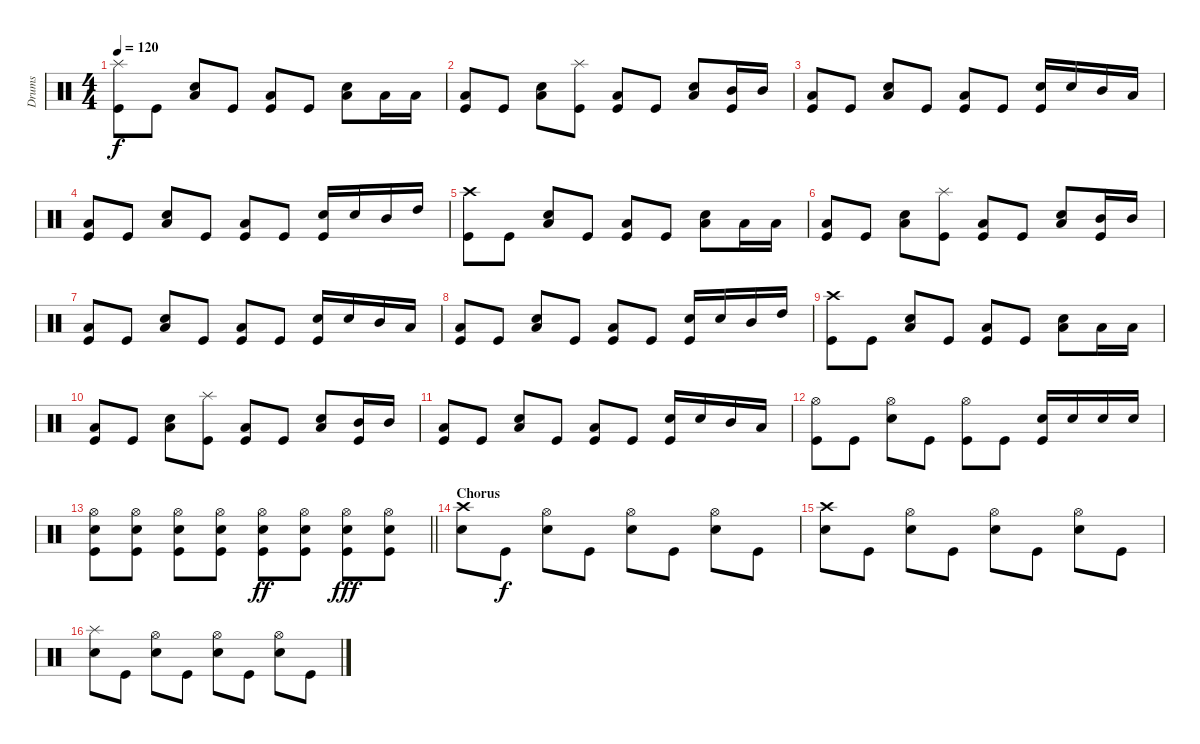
\track ("Drums" "Drums") {instrument percussion}
\staff {score}
\articulation defaults
\ts (4 4)
\tempo 120
\clef neutral
\ks c
("Splash (hit)" "Kick (hit)").8{dy f} "Kick (hit)".8 ("Low Tom (hit)" "Snare (hit) 2").8 "Kick (hit)".8 ("Low Tom (hit)" "Kick (hit)").8 "Kick (hit)".8 ("Low Tom (hit)" "Snare (hit) 2").8 "Low Tom (hit)".16 "Low Tom (hit)".16 |
("Low Tom (hit)" "Kick (hit)").8 "Kick (hit)".8 ("Low Tom (hit)" "Snare (hit) 2").8 ("Splash (hit)" "Kick (hit)").8 ("Low Tom (hit)" "Kick (hit)").8 "Kick (hit)".8 ("Low Tom (hit)" "Snare (hit) 2").8 ("Mid Tom (hit)" "Kick (hit)").16 "Mid Tom (hit)".16 |
("Low Tom (hit)" "Kick (hit)").8 "Kick (hit)".8 ("Low Tom (hit)" "Snare (hit) 2").8 "Kick (hit)".8 ("Low Tom (hit)" "Kick (hit)").8 "Kick (hit)".8 ("Snare (hit) 2" "Kick (hit)").16 "Snare (hit) 2".16 "Mid Tom (hit)".16 "Low Tom (hit)".16 |
("Low Tom (hit)" "Kick (hit)").8 "Kick (hit)".8 ("Low Tom (hit)" "Snare (hit) 2").8 "Kick (hit)".8 ("Low Tom (hit)" "Kick (hit)").8 "Kick (hit)".8 ("Snare (hit) 2" "Kick (hit)").16 "Snare (hit) 2".16 "Mid Tom (hit)".16 "High Tom (hit)".16 |
("Crash high (hit)" "Kick (hit)").8 "Kick (hit)".8 ("Low Tom (hit)" "Snare (hit) 2").8 "Kick (hit)".8 ("Low Tom (hit)" "Kick (hit)").8 "Kick (hit)".8 ("Low Tom (hit)" "Snare (hit) 2").8 "Low Tom (hit)".16 "Low Tom (hit)".16 |
("Low Tom (hit)" "Kick (hit)").8 "Kick (hit)".8 ("Low Tom (hit)" "Snare (hit) 2").8 ("Splash (hit)" "Kick (hit)").8 ("Low Tom (hit)" "Kick (hit)").8 "Kick (hit)".8 ("Low Tom (hit)" "Snare (hit) 2").8 ("Mid Tom (hit)" "Kick (hit)").16 "Mid Tom (hit)".16 |
("Low Tom (hit)" "Kick (hit)").8 "Kick (hit)".8 ("Low Tom (hit)" "Snare (hit) 2").8 "Kick (hit)".8 ("Low Tom (hit)" "Kick (hit)").8 "Kick (hit)".8 ("Snare (hit) 2" "Kick (hit)").16 "Snare (hit) 2".16 "Mid Tom (hit)".16 "Low Tom (hit)".16 |
("Low Tom (hit)" "Kick (hit)").8 "Kick (hit)".8 ("Low Tom (hit)" "Snare (hit) 2").8 "Kick (hit)".8 ("Low Tom (hit)" "Kick (hit)").8 "Kick (hit)".8 ("Snare (hit) 2" "Kick (hit)").16 "Snare (hit) 2".16 "Mid Tom (hit)".16 "High Tom (hit)".16 |
("Crash high (hit)" "Kick (hit)").8 "Kick (hit)".8 ("Low Tom (hit)" "Snare (hit) 2").8 "Kick (hit)".8 ("Low Tom (hit)" "Kick (hit)").8 "Kick (hit)".8 ("Low Tom (hit)" "Snare (hit) 2").8 "Low Tom (hit)".16 "Low Tom (hit)".16 |
("Low Tom (hit)" "Kick (hit)").8 "Kick (hit)".8 ("Low Tom (hit)" "Snare (hit) 2").8 ("Splash (hit)" "Kick (hit)").8 ("Low Tom (hit)" "Kick (hit)").8 "Kick (hit)".8 ("Low Tom (hit)" "Snare (hit) 2").8 ("Mid Tom (hit)" "Kick (hit)").16 "Mid Tom (hit)".16 |
("Low Tom (hit)" "Kick (hit)").8 "Kick (hit)".8 ("Low Tom (hit)" "Snare (hit) 2").8 "Kick (hit)".8 ("Low Tom (hit)" "Kick (hit)").8 "Kick (hit)".8 ("Snare (hit) 2" "Kick (hit)").16 "Snare (hit) 2".16 "Mid Tom (hit)".16 "Low Tom (hit)".16 |
("Hi-Hat (open)" "Kick (hit)").8 "Kick (hit)".8 ("Hi-Hat (open)" "Snare (hit) 2").8 "Kick (hit)".8 ("Hi-Hat (open)" "Kick (hit)").8 "Kick (hit)".8 ("Snare (hit) 2" "Kick (hit)").16 "Snare (hit) 2".16 "Snare (hit) 2".16 "Snare (hit) 2".16 |
\barLineRight lightlight
("Snare (hit) 2" "Hi-Hat (open)" "Kick (hit)").8 ("Snare (hit) 2" "Hi-Hat (open)" "Kick (hit)").8 ("Snare (hit) 2" "Hi-Hat (open)" "Kick (hit)").8 ("Snare (hit) 2" "Hi-Hat (open)" "Kick (hit)").8 ("Snare (hit) 2" "Hi-Hat (open)" "Kick (hit)").8{dy ff} ("Snare (hit) 2" "Hi-Hat (open)" "Kick (hit)").8 ("Snare (hit) 2" "Hi-Hat (open)" "Kick (hit)").8{dy fff} ("Snare (hit) 2" "Hi-Hat (open)" "Kick (hit)").8 |
\section ("" "Chorus")
("Crash high (hit)" "Snare (hit) 2").8 "Kick (hit)".8{dy f} ("Hi-Hat (open)" "Snare (hit) 2").8 "Kick (hit)".8 ("Hi-Hat (open)" "Snare (hit) 2").8 "Kick (hit)".8 ("Hi-Hat (open)" "Snare (hit) 2").8 "Kick (hit)".8 |
("Crash high (hit)" "Snare (hit) 2").8 "Kick (hit)".8 ("Hi-Hat (open)" "Snare (hit) 2").8 "Kick (hit)".8 ("Hi-Hat (open)" "Snare (hit) 2").8 "Kick (hit)".8 ("Hi-Hat (open)" "Snare (hit) 2").8 "Kick (hit)".8 |
("Splash (hit)" "Snare (hit) 2").8 "Kick (hit)".8 ("Hi-Hat (open)" "Snare (hit) 2").8 "Kick (hit)".8 ("Hi-Hat (open)" "Snare (hit) 2").8 "Kick (hit)".8 ("Hi-Hat (open)" "Snare (hit) 2").8 "Kick (hit)".8
